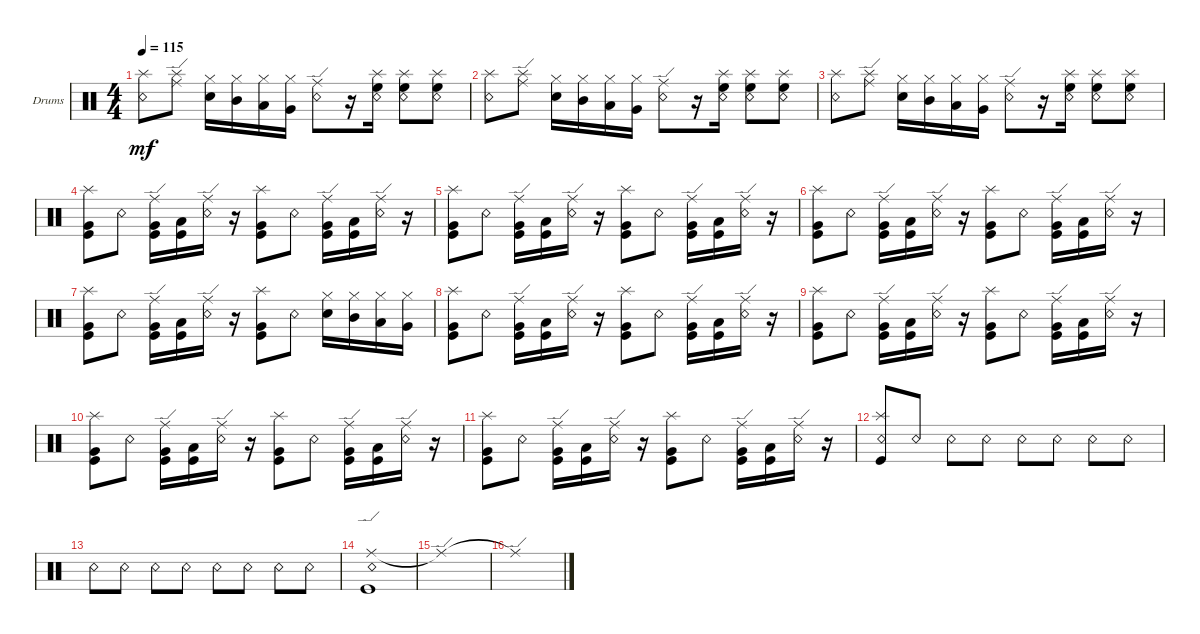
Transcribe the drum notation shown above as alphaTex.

\defaultSystemsLayout 4
\bracketExtendMode groupsimilarinstruments
\firstSystemTrackNameOrientation horizontal
\otherSystemsTrackNameOrientation horizontal
\track ("Drumkit" "Drums") {instrument percussion}
\staff {score}
\articulation defaults
\ts (4 4)
\tempo 115
\clef neutral
\scale
0.333333
\ks c
("Snare (rim shot)" "Splash (hit)").8{dy mf} ("Ride (edge)" "Splash (hit)").8 ("Snare (hit) 2" "Hi-Hat (closed)").16 ("Mid Tom (hit)" "Hi-Hat (closed)").16 ("Low Tom (hit)" "Hi-Hat (closed)").16 ("Hi-Hat (closed)" "Very Low Tom (hit)").16 ("Snare (rim shot)" "Ride (edge)").8 r.16 ("Snare (rim shot)" "High Floor Tom (hit)" "Splash (hit)").16 ("Snare (rim shot)" "High Floor Tom (hit)" "Splash (hit)").8 ("High Floor Tom (hit)" "Snare (rim shot)" "Splash (hit)").8 |
\scale
0.333333 ("Snare (rim shot)" "Splash (hit)").8 ("Ride (edge)" "Splash (hit)").8 ("Snare (hit) 2" "Hi-Hat (closed)").16 ("Mid Tom (hit)" "Hi-Hat (closed)").16 ("Low Tom (hit)" "Hi-Hat (closed)").16 ("Hi-Hat (closed)" "Very Low Tom (hit)").16 ("Snare (rim shot)" "Ride (edge)").8 r.16 ("Snare (rim shot)" "High Floor Tom (hit)" "Splash (hit)").16 ("Snare (rim shot)" "High Floor Tom (hit)" "Splash (hit)").8 ("High Floor Tom (hit)" "Snare (rim shot)" "Splash (hit)").8 |
\scale
0.333333 ("Snare (rim shot)" "Splash (hit)").8 ("Ride (edge)" "Splash (hit)").8 ("Snare (hit) 2" "Hi-Hat (closed)").16 ("Mid Tom (hit)" "Hi-Hat (closed)").16 ("Low Tom (hit)" "Hi-Hat (closed)").16 ("Hi-Hat (closed)" "Very Low Tom (hit)").16 ("Snare (rim shot)" "Ride (edge)").8 r.16 ("Snare (rim shot)" "High Floor Tom (hit)" "Splash (hit)").16 ("Snare (rim shot)" "High Floor Tom (hit)" "Splash (hit)").8 ("High Floor Tom (hit)" "Snare (rim shot)" "Splash (hit)").8 |
\scale
0.333333 ("Splash (hit)" "Kick (hit)" "Very Low Tom (hit)").8 "Snare (rim shot)".8 ("Ride (edge)" "Kick (hit)" "Very Low Tom (hit)").16 ("Kick (hit)" "Low Tom (hit)").16 ("Snare (rim shot)" "Ride (edge)").16 r.16 ("Splash (hit)" "Kick (hit)" "Very Low Tom (hit)").8 "Snare (rim shot)".8 ("Ride (edge)" "Kick (hit)" "Very Low Tom (hit)").16 ("Kick (hit)" "Low Tom (hit)").16 ("Snare (rim shot)" "Ride (edge)").16 r.16 |
\scale
0.333333 ("Splash (hit)" "Kick (hit)" "Very Low Tom (hit)").8 "Snare (rim shot)".8 ("Ride (edge)" "Kick (hit)" "Very Low Tom (hit)").16 ("Kick (hit)" "Low Tom (hit)").16 ("Snare (rim shot)" "Ride (edge)").16 r.16 ("Splash (hit)" "Kick (hit)" "Very Low Tom (hit)").8 "Snare (rim shot)".8 ("Ride (edge)" "Kick (hit)" "Very Low Tom (hit)").16 ("Kick (hit)" "Low Tom (hit)").16 ("Snare (rim shot)" "Ride (edge)").16 r.16 |
\scale
0.333333 ("Splash (hit)" "Kick (hit)" "Very Low Tom (hit)").8 "Snare (rim shot)".8 ("Ride (edge)" "Kick (hit)" "Very Low Tom (hit)").16 ("Kick (hit)" "Low Tom (hit)").16 ("Snare (rim shot)" "Ride (edge)").16 r.16 ("Splash (hit)" "Kick (hit)" "Very Low Tom (hit)").8 "Snare (rim shot)".8 ("Ride (edge)" "Kick (hit)" "Very Low Tom (hit)").16 ("Kick (hit)" "Low Tom (hit)").16 ("Snare (rim shot)" "Ride (edge)").16 r.16 |
\scale
0.333333 ("Splash (hit)" "Kick (hit)" "Very Low Tom (hit)").8 "Snare (rim shot)".8 ("Ride (edge)" "Kick (hit)" "Very Low Tom (hit)").16 ("Kick (hit)" "Low Tom (hit)").16 ("Snare (rim shot)" "Ride (edge)").16 r.16 ("Splash (hit)" "Kick (hit)" "Very Low Tom (hit)").8 "Snare (rim shot)".8 ("Snare (hit) 2" "Hi-Hat (closed)").16 ("Mid Tom (hit)" "Hi-Hat (closed)").16 ("Low Tom (hit)" "Hi-Hat (closed)").16 ("Hi-Hat (closed)" "Very Low Tom (hit)").16 |
\scale
0.333333 ("Splash (hit)" "Kick (hit)" "Very Low Tom (hit)").8 "Snare (rim shot)".8 ("Ride (edge)" "Kick (hit)" "Very Low Tom (hit)").16 ("Kick (hit)" "Low Tom (hit)").16 ("Snare (rim shot)" "Ride (edge)").16 r.16 ("Splash (hit)" "Kick (hit)" "Very Low Tom (hit)").8 "Snare (rim shot)".8 ("Ride (edge)" "Kick (hit)" "Very Low Tom (hit)").16 ("Kick (hit)" "Low Tom (hit)").16 ("Snare (rim shot)" "Ride (edge)").16 r.16 |
\scale
0.333333 ("Splash (hit)" "Kick (hit)" "Very Low Tom (hit)").8 "Snare (rim shot)".8 ("Ride (edge)" "Kick (hit)" "Very Low Tom (hit)").16 ("Kick (hit)" "Low Tom (hit)").16 ("Snare (rim shot)" "Ride (edge)").16 r.16 ("Splash (hit)" "Kick (hit)" "Very Low Tom (hit)").8 "Snare (rim shot)".8 ("Ride (edge)" "Kick (hit)" "Very Low Tom (hit)").16 ("Kick (hit)" "Low Tom (hit)").16 ("Snare (rim shot)" "Ride (edge)").16 r.16 |
\scale
0.333333 ("Splash (hit)" "Kick (hit)" "Very Low Tom (hit)").8 "Snare (rim shot)".8 ("Ride (edge)" "Kick (hit)" "Very Low Tom (hit)").16 ("Kick (hit)" "Low Tom (hit)").16 ("Snare (rim shot)" "Ride (edge)").16 r.16 ("Splash (hit)" "Kick (hit)" "Very Low Tom (hit)").8 "Snare (rim shot)".8 ("Ride (edge)" "Kick (hit)" "Very Low Tom (hit)").16 ("Kick (hit)" "Low Tom (hit)").16 ("Snare (rim shot)" "Ride (edge)").16 r.16 |
\scale
0.333333 ("Splash (hit)" "Kick (hit)" "Very Low Tom (hit)").8 "Snare (rim shot)".8 ("Ride (edge)" "Kick (hit)" "Very Low Tom (hit)").16 ("Kick (hit)" "Low Tom (hit)").16 ("Snare (rim shot)" "Ride (edge)").16 r.16 ("Splash (hit)" "Kick (hit)" "Very Low Tom (hit)").8 "Snare (rim shot)".8 ("Ride (edge)" "Kick (hit)" "Very Low Tom (hit)").16 ("Kick (hit)" "Low Tom (hit)").16 ("Snare (rim shot)" "Ride (edge)").16 r.16 |
\scale
0.333333 ("Kick (hit)" "Snare (rim shot)" "Splash (hit)").8 "Snare (rim shot)".8 "Snare (rim shot)".8 "Snare (rim shot)".8 "Snare (rim shot)".8 "Snare (rim shot)".8 "Snare (rim shot)".8 "Snare (rim shot)".8 |
\scale
0.333333 "Snare (rim shot)".8 "Snare (rim shot)".8 "Snare (rim shot)".8 "Snare (rim shot)".8 "Snare (rim shot)".8 "Snare (rim shot)".8 "Snare (rim shot)".8 "Snare (rim shot)".8 |
\scale
0.333333 ("Ride (edge)" "Kick (hit)" "Snare (rim shot)").1 |
"Ride (edge)"{t}.1 |
"Ride (edge)"{t}.1
